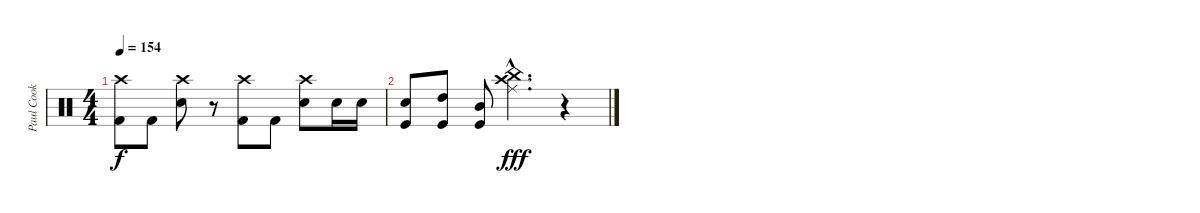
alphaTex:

\track ("Paul Cook" "Paul Cook") {instrument percussion}
\staff {score}
\articulation defaults
\ts (4 4)
\tempo 154
\clef neutral
\ks c
("Crash high (hit)" "Kick (hit) 2").8{dy f} "Kick (hit) 2".8 ("Crash high (hit)" "Electric Snare (hit)").8 r.8 ("Crash high (hit)" "Kick (hit) 2").8 "Kick (hit) 2".8 ("Crash high (hit)" "Electric Snare (hit)").8 "Snare (hit) 2".16 "Snare (hit) 2".16 |
("Snare (hit) 2" "Kick (hit)").8 ("High Tom (hit)" "Kick (hit)").8 ("Mid Tom (hit)" "Kick (hit)").8 ("Crash high (hit)"{hac} "Ride (middle)"{hac} "China (hit)"{hac}).4{d dy fff} r.4
